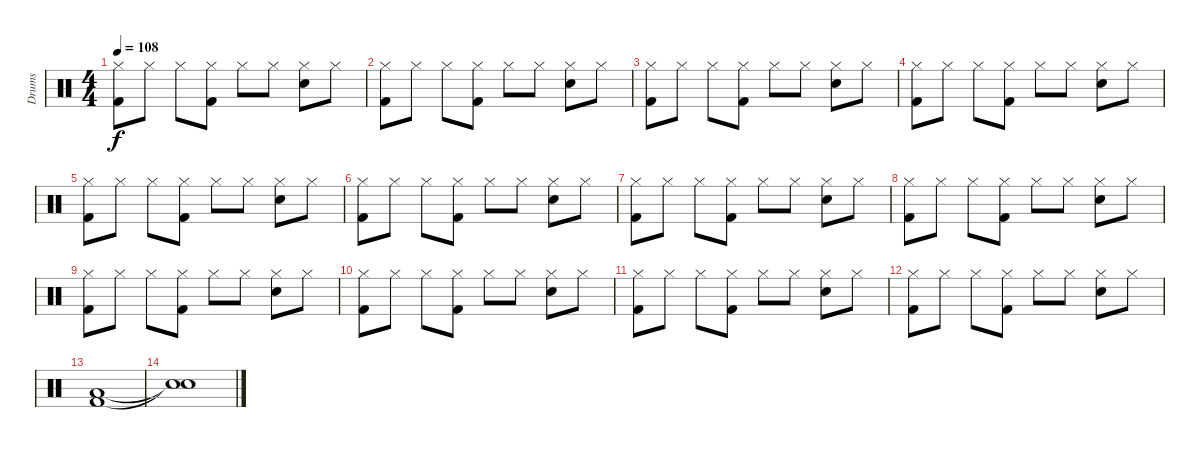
\track ("Drums" "Drums") {instrument percussion}
\staff {score}
\articulation defaults
\ts (4 4)
\tempo 108
\clef neutral
\ks c
("Hi-Hat (closed)" "Kick (hit) 2").8{dy f} "Hi-Hat (closed)".8 "Hi-Hat (closed)".8 ("Hi-Hat (closed)" "Kick (hit) 2").8 "Hi-Hat (closed)".8 "Hi-Hat (closed)".8 ("Hi-Hat (closed)" "Snare (hit) 2").8 "Hi-Hat (closed)".8 |
("Hi-Hat (closed)" "Kick (hit) 2").8 "Hi-Hat (closed)".8 "Hi-Hat (closed)".8 ("Hi-Hat (closed)" "Kick (hit) 2").8 "Hi-Hat (closed)".8 "Hi-Hat (closed)".8 ("Hi-Hat (closed)" "Snare (hit) 2").8 "Hi-Hat (closed)".8 |
("Hi-Hat (closed)" "Kick (hit) 2").8 "Hi-Hat (closed)".8 "Hi-Hat (closed)".8 ("Hi-Hat (closed)" "Kick (hit) 2").8 "Hi-Hat (closed)".8 "Hi-Hat (closed)".8 ("Hi-Hat (closed)" "Snare (hit) 2").8 "Hi-Hat (closed)".8 |
("Hi-Hat (closed)" "Kick (hit) 2").8 "Hi-Hat (closed)".8 "Hi-Hat (closed)".8 ("Hi-Hat (closed)" "Kick (hit) 2").8 "Hi-Hat (closed)".8 "Hi-Hat (closed)".8 ("Hi-Hat (closed)" "Snare (hit) 2").8 "Hi-Hat (closed)".8 |
("Hi-Hat (closed)" "Kick (hit) 2").8 "Hi-Hat (closed)".8 "Hi-Hat (closed)".8 ("Hi-Hat (closed)" "Kick (hit) 2").8 "Hi-Hat (closed)".8 "Hi-Hat (closed)".8 ("Hi-Hat (closed)" "Snare (hit) 2").8 "Hi-Hat (closed)".8 |
("Hi-Hat (closed)" "Kick (hit) 2").8 "Hi-Hat (closed)".8 "Hi-Hat (closed)".8 ("Hi-Hat (closed)" "Kick (hit) 2").8 "Hi-Hat (closed)".8 "Hi-Hat (closed)".8 ("Hi-Hat (closed)" "Snare (hit) 2").8 "Hi-Hat (closed)".8 |
("Hi-Hat (closed)" "Kick (hit) 2").8 "Hi-Hat (closed)".8 "Hi-Hat (closed)".8 ("Hi-Hat (closed)" "Kick (hit) 2").8 "Hi-Hat (closed)".8 "Hi-Hat (closed)".8 ("Hi-Hat (closed)" "Snare (hit) 2").8 "Hi-Hat (closed)".8 |
("Hi-Hat (closed)" "Kick (hit) 2").8 "Hi-Hat (closed)".8 "Hi-Hat (closed)".8 ("Hi-Hat (closed)" "Kick (hit) 2").8 "Hi-Hat (closed)".8 "Hi-Hat (closed)".8 ("Hi-Hat (closed)" "Snare (hit) 2").8 "Hi-Hat (closed)".8 |
("Hi-Hat (closed)" "Kick (hit) 2").8 "Hi-Hat (closed)".8 "Hi-Hat (closed)".8 ("Hi-Hat (closed)" "Kick (hit) 2").8 "Hi-Hat (closed)".8 "Hi-Hat (closed)".8 ("Hi-Hat (closed)" "Snare (hit) 2").8 "Hi-Hat (closed)".8 |
("Hi-Hat (closed)" "Kick (hit) 2").8 "Hi-Hat (closed)".8 "Hi-Hat (closed)".8 ("Hi-Hat (closed)" "Kick (hit) 2").8 "Hi-Hat (closed)".8 "Hi-Hat (closed)".8 ("Hi-Hat (closed)" "Snare (hit) 2").8 "Hi-Hat (closed)".8 |
("Hi-Hat (closed)" "Kick (hit) 2").8 "Hi-Hat (closed)".8 "Hi-Hat (closed)".8 ("Hi-Hat (closed)" "Kick (hit) 2").8 "Hi-Hat (closed)".8 "Hi-Hat (closed)".8 ("Hi-Hat (closed)" "Snare (hit) 2").8 "Hi-Hat (closed)".8 |
("Hi-Hat (closed)" "Kick (hit) 2").8 "Hi-Hat (closed)".8 "Hi-Hat (closed)".8 ("Hi-Hat (closed)" "Kick (hit) 2").8 "Hi-Hat (closed)".8 "Hi-Hat (closed)".8 ("Hi-Hat (closed)" "Snare (hit) 2").8 "Hi-Hat (closed)".8 |
("Low Floor Tom (hit)" "Kick (hit) 2").1{volume 0} |
("Snare (hit)"{t} "Snare (hit)"{t}).1
